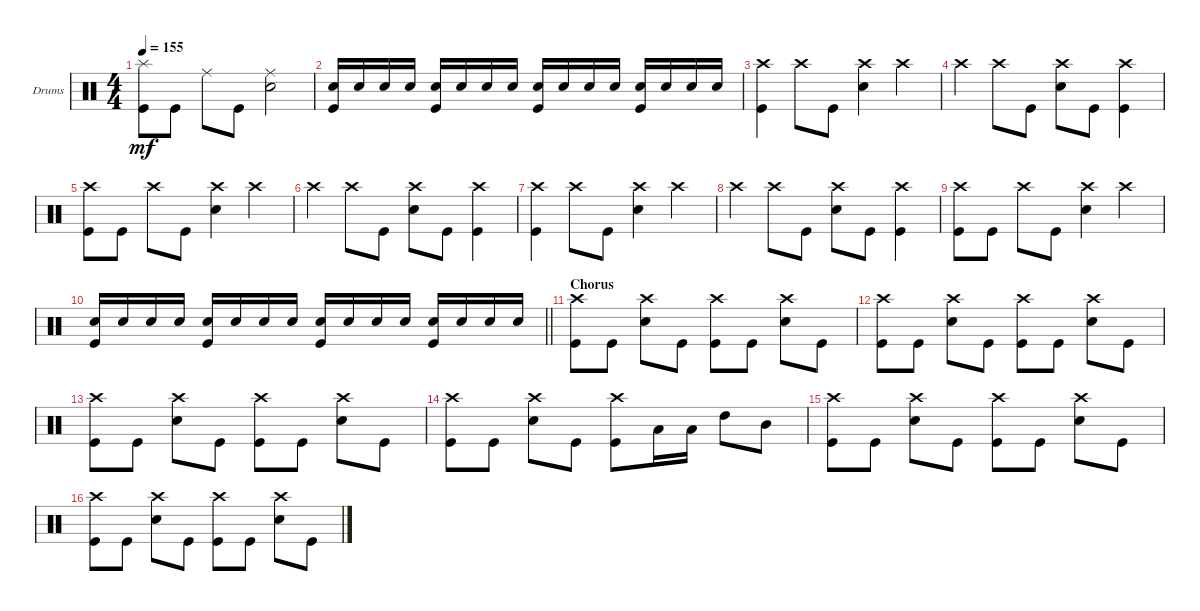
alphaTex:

\defaultSystemsLayout 4
\bracketExtendMode groupsimilarinstruments
\firstSystemTrackNameOrientation horizontal
\otherSystemsTrackNameOrientation horizontal
\track ("Drums" "Drums") {instrument percussion}
\staff {score}
\articulation defaults
\ts (4 4)
\tempo 155
\clef neutral
\ks c
("Kick (hit)" "Splash (hit)").8{dy mf} "Kick (hit)".8 "Ride (middle)".8 "Kick (hit)".8 ("Snare (hit) 2" "Ride (middle)").2 |
("Kick (hit)" "Snare (hit) 2").16 "Snare (hit) 2".16 "Snare (hit) 2".16 "Snare (hit) 2".16 ("Kick (hit)" "Snare (hit) 2").16 "Snare (hit) 2".16 "Snare (hit) 2".16 "Snare (hit) 2".16 ("Kick (hit)" "Snare (hit) 2").16 "Snare (hit) 2".16 "Snare (hit) 2".16 "Snare (hit) 2".16 ("Kick (hit)" "Snare (hit) 2").16 "Snare (hit) 2".16 "Snare (hit) 2".16 "Snare (hit) 2".16 |
("Crash high (hit)" "Kick (hit)").4 "Crash high (hit)".8 "Kick (hit)".8 ("Snare (hit) 2" "Crash high (hit)").4 "Crash high (hit)".4 |
"Crash high (hit)".4 "Crash high (hit)".8 "Kick (hit)".8 ("Snare (hit) 2" "Crash high (hit)").8 "Kick (hit)".8 ("Kick (hit)" "Crash high (hit)").4 |
("Crash high (hit)" "Kick (hit)").8 "Kick (hit)".8 "Crash high (hit)".8 "Kick (hit)".8 ("Snare (hit) 2" "Crash high (hit)").4 "Crash high (hit)".4 |
"Crash high (hit)".4 "Crash high (hit)".8 "Kick (hit)".8 ("Snare (hit) 2" "Crash high (hit)").8 "Kick (hit)".8 ("Kick (hit)" "Crash high (hit)").4 |
("Crash high (hit)" "Kick (hit)").4 "Crash high (hit)".8 "Kick (hit)".8 ("Snare (hit) 2" "Crash high (hit)").4 "Crash high (hit)".4 |
"Crash high (hit)".4 "Crash high (hit)".8 "Kick (hit)".8 ("Snare (hit) 2" "Crash high (hit)").8 "Kick (hit)".8 ("Kick (hit)" "Crash high (hit)").4 |
("Crash high (hit)" "Kick (hit)").8 "Kick (hit)".8 "Crash high (hit)".8 "Kick (hit)".8 ("Snare (hit) 2" "Crash high (hit)").4 "Crash high (hit)".4 |
\barLineRight lightlight
("Kick (hit)" "Snare (hit) 2").16 "Snare (hit) 2".16 "Snare (hit) 2".16 "Snare (hit) 2".16 ("Kick (hit)" "Snare (hit) 2").16 "Snare (hit) 2".16 "Snare (hit) 2".16 "Snare (hit) 2".16 ("Kick (hit)" "Snare (hit) 2").16 "Snare (hit) 2".16 "Snare (hit) 2".16 "Snare (hit) 2".16 ("Kick (hit)" "Snare (hit) 2").16 "Snare (hit) 2".16 "Snare (hit) 2".16 "Snare (hit) 2".16 |
\section ("" "Chorus")
("Kick (hit)" "Crash high (hit)").8 "Kick (hit)".8 ("Snare (hit) 2" "Crash high (hit)").8 "Kick (hit)".8 ("Kick (hit)" "Crash high (hit)").8 "Kick (hit)".8 ("Snare (hit) 2" "Crash high (hit)").8 "Kick (hit)".8 |
("Kick (hit)" "Crash high (hit)").8 "Kick (hit)".8 ("Snare (hit) 2" "Crash high (hit)").8 "Kick (hit)".8 ("Kick (hit)" "Crash high (hit)").8 "Kick (hit)".8 ("Snare (hit) 2" "Crash high (hit)").8 "Kick (hit)".8 |
("Kick (hit)" "Crash high (hit)").8 "Kick (hit)".8 ("Snare (hit) 2" "Crash high (hit)").8 "Kick (hit)".8 ("Kick (hit)" "Crash high (hit)").8 "Kick (hit)".8 ("Snare (hit) 2" "Crash high (hit)").8 "Kick (hit)".8 |
("Kick (hit)" "Crash high (hit)").8 "Kick (hit)".8 ("Snare (hit) 2" "Crash high (hit)").8 "Kick (hit)".8 ("Kick (hit)" "Crash high (hit)").8 "Low Tom (hit)".16 "Low Tom (hit)".16 "High Tom (hit)".8 "Mid Tom (hit)".8 |
("Kick (hit)" "Crash high (hit)").8 "Kick (hit)".8 ("Snare (hit) 2" "Crash high (hit)").8 "Kick (hit)".8 ("Kick (hit)" "Crash high (hit)").8 "Kick (hit)".8 ("Snare (hit) 2" "Crash high (hit)").8 "Kick (hit)".8 |
("Kick (hit)" "Crash high (hit)").8 "Kick (hit)".8 ("Snare (hit) 2" "Crash high (hit)").8 "Kick (hit)".8 ("Kick (hit)" "Crash high (hit)").8 "Kick (hit)".8 ("Snare (hit) 2" "Crash high (hit)").8 "Kick (hit)".8
